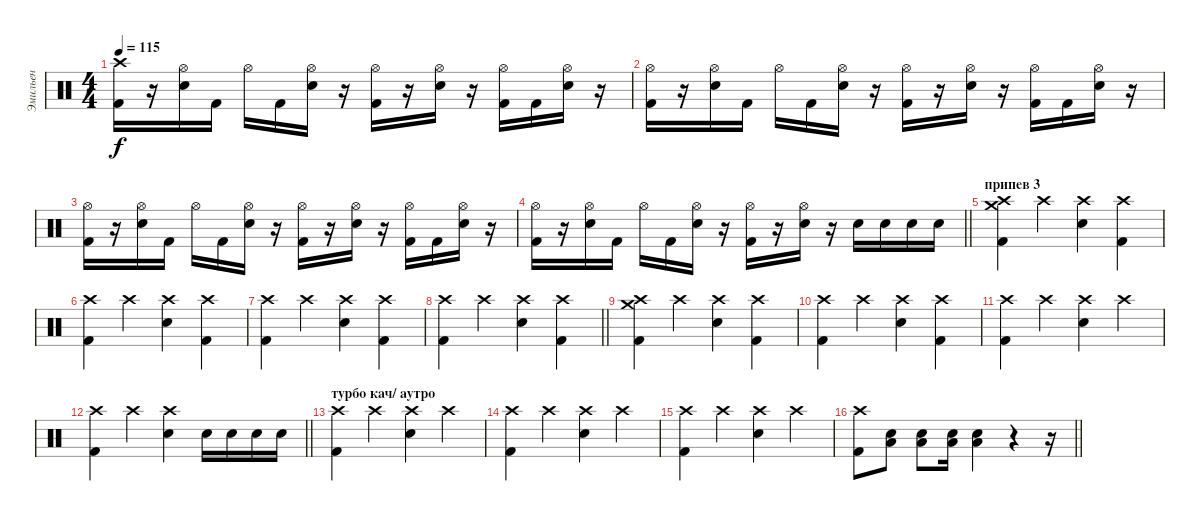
\track ("Эмильен" "Эмильен") {instrument percussion}
\staff {score}
\articulation defaults
\ts (4 4)
\tempo 115
\clef neutral
\ks c
("Crash high (hit)" "Kick (hit) 2").16{dy f} r.16 ("Hi-Hat (open)" "Snare (hit) 2").16 "Kick (hit) 2".16 "Hi-Hat (open)".16 "Kick (hit) 2".16 ("Hi-Hat (open)" "Snare (hit) 2").16 r.16 ("Hi-Hat (open)" "Kick (hit) 2").16 r.16 ("Hi-Hat (open)" "Snare (hit) 2").16 r.16 ("Hi-Hat (open)" "Kick (hit) 2").16 "Kick (hit) 2".16 ("Hi-Hat (open)" "Snare (hit) 2").16 r.16 |
("Hi-Hat (open)" "Kick (hit) 2").16 r.16 ("Hi-Hat (open)" "Snare (hit) 2").16 "Kick (hit) 2".16 "Hi-Hat (open)".16 "Kick (hit) 2".16 ("Hi-Hat (open)" "Snare (hit) 2").16 r.16 ("Hi-Hat (open)" "Kick (hit) 2").16 r.16 ("Hi-Hat (open)" "Snare (hit) 2").16 r.16 ("Hi-Hat (open)" "Kick (hit) 2").16 "Kick (hit) 2".16 ("Hi-Hat (open)" "Snare (hit) 2").16 r.16 |
("Hi-Hat (open)" "Kick (hit) 2").16 r.16 ("Hi-Hat (open)" "Snare (hit) 2").16 "Kick (hit) 2".16 "Hi-Hat (open)".16 "Kick (hit) 2".16 ("Hi-Hat (open)" "Snare (hit) 2").16 r.16 ("Hi-Hat (open)" "Kick (hit) 2").16 r.16 ("Hi-Hat (open)" "Snare (hit) 2").16 r.16 ("Hi-Hat (open)" "Kick (hit) 2").16 "Kick (hit) 2".16 ("Hi-Hat (open)" "Snare (hit) 2").16 r.16 |
\barLineRight lightlight
("Hi-Hat (open)" "Kick (hit) 2").16 r.16 ("Hi-Hat (open)" "Snare (hit) 2").16 "Kick (hit) 2".16 "Hi-Hat (open)".16 "Kick (hit) 2".16 ("Hi-Hat (open)" "Snare (hit) 2").16 r.16 ("Hi-Hat (open)" "Kick (hit) 2").16 r.16 ("Hi-Hat (open)" "Snare (hit) 2").16 r.16 "Snare (hit) 2".16 "Snare (hit) 2".16 "Snare (hit) 2".16 "Snare (hit) 2".16 |
\section ("" "припев 3")
("Crash high (hit)" "Crash medium (hit)" "Kick (hit) 2").4 "Crash high (hit)".4 ("Crash high (hit)" "Snare (hit) 2").4 ("Crash high (hit)" "Kick (hit) 2").4 |
("Crash high (hit)" "Kick (hit) 2").4 "Crash high (hit)".4 ("Crash high (hit)" "Snare (hit) 2").4 ("Crash high (hit)" "Kick (hit) 2").4 |
("Crash high (hit)" "Kick (hit) 2").4 "Crash high (hit)".4 ("Crash high (hit)" "Snare (hit) 2").4 ("Crash high (hit)" "Kick (hit) 2").4 |
\barLineRight lightlight
("Crash high (hit)" "Kick (hit) 2").4 "Crash high (hit)".4 ("Crash high (hit)" "Snare (hit) 2").4 ("Crash high (hit)" "Kick (hit) 2").4 |
("Crash high (hit)" "Crash medium (hit)" "Kick (hit) 2").4 "Crash high (hit)".4 ("Crash high (hit)" "Snare (hit) 2").4 ("Crash high (hit)" "Kick (hit) 2").4 |
("Crash high (hit)" "Kick (hit) 2").4 "Crash high (hit)".4 ("Crash high (hit)" "Snare (hit) 2").4 ("Crash high (hit)" "Kick (hit) 2").4 |
("Crash high (hit)" "Kick (hit) 2").4 "Crash high (hit)".4 ("Crash high (hit)" "Snare (hit) 2").4 "Crash high (hit)".4 |
\barLineRight lightlight
("Crash high (hit)" "Kick (hit) 2").4 "Crash high (hit)".4 ("Crash high (hit)" "Snare (hit) 2").4 "Snare (hit) 2".16 "Snare (hit) 2".16 "Snare (hit) 2".16 "Snare (hit) 2".16 |
\section ("" "турбо кач/ аутро")
("Crash high (hit)" "Kick (hit) 2").4 "Crash high (hit)".4 ("Crash high (hit)" "Snare (hit) 2").4 "Crash high (hit)".4 |
("Crash high (hit)" "Kick (hit) 2").4 "Crash high (hit)".4 ("Crash high (hit)" "Snare (hit) 2").4 "Crash high (hit)".4 |
("Crash high (hit)" "Kick (hit) 2").4 "Crash high (hit)".4 ("Crash high (hit)" "Snare (hit) 2").4 "Crash high (hit)".4 |
\barLineRight lightlight
("Crash high (hit)" "Kick (hit) 2").8 ("Low Floor Tom (hit)" "Snare (hit) 2").8 ("Low Floor Tom (hit)" "Snare (hit) 2").8 ("Low Floor Tom (hit)" "Snare (hit) 2").16 ("Low Floor Tom (hit)" "Snare (hit) 2").4 r.4 r.16
